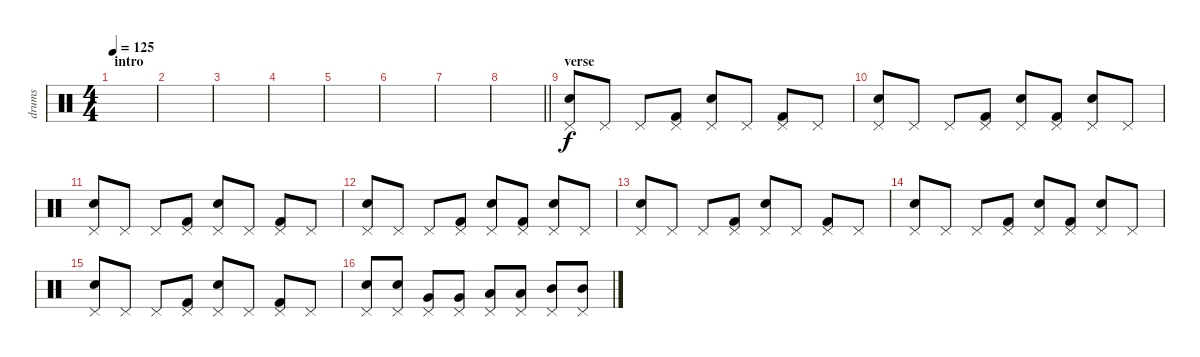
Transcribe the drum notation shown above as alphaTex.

\track ("drums" "drums") {instrument percussion}
\staff {score}
\articulation defaults
\ts (4 4)
\section ("" "intro")
\tempo 125
\clef neutral
\ks c
|
|
|
|
|
|
|
\barLineRight lightlight
|
\section ("" "verse")
("Pedal Hi-Hat (hit)" "Snare (hit) 2").8 "Pedal Hi-Hat (hit)".8 "Pedal Hi-Hat (hit)".8 ("Pedal Hi-Hat (hit)" "Kick (hit) 2").8 ("Pedal Hi-Hat (hit)" "Snare (hit) 2").8 "Pedal Hi-Hat (hit)".8 ("Pedal Hi-Hat (hit)" "Kick (hit) 2").8 "Pedal Hi-Hat (hit)".8 |
("Pedal Hi-Hat (hit)" "Snare (hit) 2").8 "Pedal Hi-Hat (hit)".8 "Pedal Hi-Hat (hit)".8 ("Pedal Hi-Hat (hit)" "Kick (hit) 2").8 ("Pedal Hi-Hat (hit)" "Snare (hit) 2").8 ("Pedal Hi-Hat (hit)" "Kick (hit) 2").8 ("Pedal Hi-Hat (hit)" "Snare (hit) 2").8 "Pedal Hi-Hat (hit)".8 |
("Pedal Hi-Hat (hit)" "Snare (hit) 2").8 "Pedal Hi-Hat (hit)".8 "Pedal Hi-Hat (hit)".8 ("Pedal Hi-Hat (hit)" "Kick (hit) 2").8 ("Pedal Hi-Hat (hit)" "Snare (hit) 2").8 "Pedal Hi-Hat (hit)".8 ("Pedal Hi-Hat (hit)" "Kick (hit) 2").8 "Pedal Hi-Hat (hit)".8 |
("Pedal Hi-Hat (hit)" "Snare (hit) 2").8 "Pedal Hi-Hat (hit)".8 "Pedal Hi-Hat (hit)".8 ("Pedal Hi-Hat (hit)" "Kick (hit) 2").8 ("Pedal Hi-Hat (hit)" "Snare (hit) 2").8 ("Pedal Hi-Hat (hit)" "Kick (hit) 2").8 ("Pedal Hi-Hat (hit)" "Snare (hit) 2").8 "Pedal Hi-Hat (hit)".8 |
("Pedal Hi-Hat (hit)" "Snare (hit) 2").8 "Pedal Hi-Hat (hit)".8 "Pedal Hi-Hat (hit)".8 ("Pedal Hi-Hat (hit)" "Kick (hit) 2").8 ("Pedal Hi-Hat (hit)" "Snare (hit) 2").8 "Pedal Hi-Hat (hit)".8 ("Pedal Hi-Hat (hit)" "Kick (hit) 2").8 "Pedal Hi-Hat (hit)".8 |
("Pedal Hi-Hat (hit)" "Snare (hit) 2").8 "Pedal Hi-Hat (hit)".8 "Pedal Hi-Hat (hit)".8 ("Pedal Hi-Hat (hit)" "Kick (hit) 2").8 ("Pedal Hi-Hat (hit)" "Snare (hit) 2").8 ("Pedal Hi-Hat (hit)" "Kick (hit) 2").8 ("Pedal Hi-Hat (hit)" "Snare (hit) 2").8 "Pedal Hi-Hat (hit)".8 |
("Pedal Hi-Hat (hit)" "Snare (hit) 2").8 "Pedal Hi-Hat (hit)".8 "Pedal Hi-Hat (hit)".8 ("Pedal Hi-Hat (hit)" "Kick (hit) 2").8 ("Pedal Hi-Hat (hit)" "Snare (hit) 2").8 "Pedal Hi-Hat (hit)".8 ("Pedal Hi-Hat (hit)" "Kick (hit) 2").8 "Pedal Hi-Hat (hit)".8 |
("Pedal Hi-Hat (hit)" "Snare (hit) 2").8 ("Pedal Hi-Hat (hit)" "Snare (hit) 2").8 ("Pedal Hi-Hat (hit)" "Very Low Tom (hit)").8 ("Pedal Hi-Hat (hit)" "Very Low Tom (hit)").8 ("Pedal Hi-Hat (hit)" "Low Tom (hit)").8 ("Pedal Hi-Hat (hit)" "Low Tom (hit)").8 ("Pedal Hi-Hat (hit)" "Mid Tom (hit)").8 ("Pedal Hi-Hat (hit)" "Mid Tom (hit)").8
